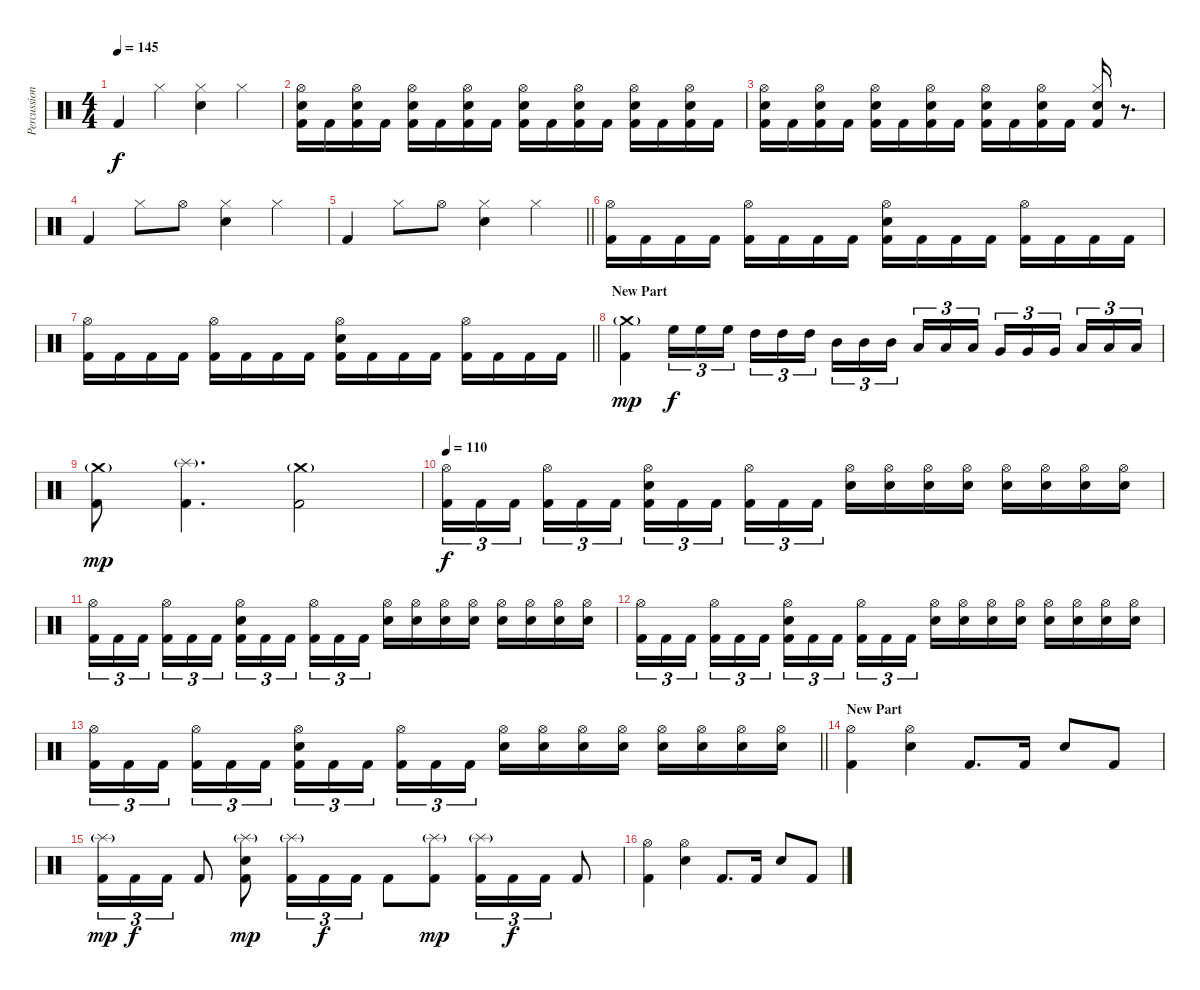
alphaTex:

\track ("Percussion" "Percussion") {instrument percussion}
\staff {score}
\articulation defaults
\ts (4 4)
\tempo 145
\clef neutral
\ks c "Kick (hit) 2".4{dy f} "Hi-Hat (closed)".4
("Hi-Hat (closed)" "Electric Snare (hit)").4 "Hi-Hat (closed)".4 |
("Hi-Hat (open)" "Electric Snare (hit)" "Kick (hit) 2").16 "Kick (hit) 2".16 ("Hi-Hat (open)" "Electric Snare (hit)" "Kick (hit) 2").16 "Kick (hit) 2".16 ("Hi-Hat (open)" "Electric Snare (hit)" "Kick (hit) 2").16 "Kick (hit) 2".16 ("Hi-Hat (open)" "Electric Snare (hit)" "Kick (hit) 2").16 "Kick (hit) 2".16 ("Hi-Hat (open)" "Electric Snare (hit)" "Kick (hit) 2").16 "Kick (hit) 2".16 ("Hi-Hat (open)" "Electric Snare (hit)" "Kick (hit) 2").16 "Kick (hit) 2".16 ("Hi-Hat (open)" "Electric Snare (hit)" "Kick (hit) 2").16 "Kick (hit) 2".16 ("Hi-Hat (open)" "Electric Snare (hit)" "Kick (hit) 2").16 "Kick (hit) 2".16 |
("Hi-Hat (open)" "Electric Snare (hit)" "Kick (hit) 2").16 "Kick (hit) 2".16 ("Hi-Hat (open)" "Electric Snare (hit)" "Kick (hit) 2").16 "Kick (hit) 2".16 ("Hi-Hat (open)" "Electric Snare (hit)" "Kick (hit) 2").16 "Kick (hit) 2".16 ("Hi-Hat (open)" "Electric Snare (hit)" "Kick (hit) 2").16 "Kick (hit) 2".16 ("Hi-Hat (open)" "Electric Snare (hit)" "Kick (hit) 2").16 "Kick (hit) 2".16 ("Hi-Hat (open)" "Electric Snare (hit)" "Kick (hit) 2").16 "Kick (hit) 2".16 ("Hi-Hat (closed)" "Electric Snare (hit)" "Kick (hit) 2").16 r.8{d} |
"Kick (hit) 2".4 "Hi-Hat (closed)".8 "Hi-Hat (open)".8 ("Hi-Hat (closed)" "Electric Snare (hit)").4 "Hi-Hat (closed)".4 |
\barLineRight lightlight "Kick (hit) 2".4 "Hi-Hat (closed)".8 "Hi-Hat (open)".8
("Hi-Hat (closed)" "Electric Snare (hit)").4 "Hi-Hat (closed)".4 |
("Hi-Hat (open)" "Kick (hit) 2").16 "Kick (hit) 2".16 "Kick (hit) 2".16 "Kick (hit) 2".16 ("Hi-Hat (open)" "Kick (hit) 2").16 "Kick (hit) 2".16 "Kick (hit) 2".16 "Kick (hit) 2".16 ("Hi-Hat (open)" "Electric Snare (hit)" "Kick (hit) 2").16 "Kick (hit) 2".16 "Kick (hit) 2".16 "Kick (hit) 2".16 ("Hi-Hat (open)" "Kick (hit) 2").16 "Kick (hit) 2".16 "Kick (hit) 2".16 "Kick (hit) 2".16 |
\barLineRight lightlight
("Hi-Hat (open)" "Kick (hit) 2").16 "Kick (hit) 2".16 "Kick (hit) 2".16 "Kick (hit) 2".16 ("Hi-Hat (open)" "Kick (hit) 2").16 "Kick (hit) 2".16 "Kick (hit) 2".16 "Kick (hit) 2".16 ("Hi-Hat (open)" "Electric Snare (hit)" "Kick (hit) 2").16 "Kick (hit) 2".16 "Kick (hit) 2".16 "Kick (hit) 2".16 ("Hi-Hat (open)" "Kick (hit) 2").16 "Kick (hit) 2".16 "Kick (hit) 2".16 "Kick (hit) 2".16 |
\section ("" "New Part")
("Crash medium (hit)"{g} "Kick (hit) 2").4{dy mp} "High Floor Tom (hit)".16{tu (3 2) dy f} "High Floor Tom (hit)".16{tu (3 2)} "High Floor Tom (hit)".16{tu (3 2) beam splitsecondary} "High Tom (hit)".16{tu (3 2)} "High Tom (hit)".16{tu (3 2)} "High Tom (hit)".16{tu (3 2)} "Mid Tom (hit)".16{tu (3 2)} "Mid Tom (hit)".16{tu (3 2)} "Mid Tom (hit)".16{tu (3 2) beam splitsecondary} "Low Tom (hit)".16{tu (3 2)} "Low Tom (hit)".16{tu (3 2)} "Low Tom (hit)".16{tu (3 2)} "Very Low Tom (hit)".16{tu (3 2)} "Very Low Tom (hit)".16{tu (3 2)} "Very Low Tom (hit)".16{tu (3 2) beam splitsecondary} "Low Floor Tom (hit)".16{tu (3 2)} "Low Floor Tom (hit)".16{tu (3 2)} "Low Floor Tom (hit)".16{tu (3 2)} |
("Crash medium (hit)"{g} "Kick (hit) 2").8{dy mp} ("Splash (hit)"{g} "Kick (hit) 2").4{d} ("Crash medium (hit)"{g} "Kick (hit) 2").2 |
\tempo 110
("Hi-Hat (open)" "Kick (hit) 2").16{tu (3 2) dy f} "Kick (hit) 2".16{tu (3 2)} "Kick (hit) 2".16{tu (3 2) beam splitsecondary} ("Hi-Hat (open)" "Kick (hit) 2").16{tu (3 2)} "Kick (hit) 2".16{tu (3 2)} "Kick (hit) 2".16{tu (3 2)} ("Hi-Hat (open)" "Electric Snare (hit)" "Kick (hit) 2").16{tu (3 2)} "Kick (hit) 2".16{tu (3 2)} "Kick (hit) 2".16{tu (3 2) beam splitsecondary} ("Hi-Hat (open)" "Kick (hit) 2").16{tu (3 2)} "Kick (hit) 2".16{tu (3 2)} "Kick (hit) 2".16{tu (3 2)} ("Hi-Hat (open)" "Electric Snare (hit)").16 ("Hi-Hat (open)" "Electric Snare (hit)").16 ("Hi-Hat (open)" "Electric Snare (hit)").16 ("Hi-Hat (open)" "Electric Snare (hit)").16 ("Hi-Hat (open)" "Electric Snare (hit)").16 ("Hi-Hat (open)" "Electric Snare (hit)").16 ("Hi-Hat (open)" "Electric Snare (hit)").16 ("Hi-Hat (open)" "Electric Snare (hit)").16 |
("Hi-Hat (open)" "Kick (hit) 2").16{tu (3 2)} "Kick (hit) 2".16{tu (3 2)} "Kick (hit) 2".16{tu (3 2) beam splitsecondary} ("Hi-Hat (open)" "Kick (hit) 2").16{tu (3 2)} "Kick (hit) 2".16{tu (3 2)} "Kick (hit) 2".16{tu (3 2)} ("Hi-Hat (open)" "Electric Snare (hit)" "Kick (hit) 2").16{tu (3 2)} "Kick (hit) 2".16{tu (3 2)} "Kick (hit) 2".16{tu (3 2) beam splitsecondary} ("Hi-Hat (open)" "Kick (hit) 2").16{tu (3 2)} "Kick (hit) 2".16{tu (3 2)} "Kick (hit) 2".16{tu (3 2)} ("Hi-Hat (open)" "Electric Snare (hit)").16 ("Hi-Hat (open)" "Electric Snare (hit)").16 ("Hi-Hat (open)" "Electric Snare (hit)").16 ("Hi-Hat (open)" "Electric Snare (hit)").16 ("Hi-Hat (open)" "Electric Snare (hit)").16 ("Hi-Hat (open)" "Electric Snare (hit)").16 ("Hi-Hat (open)" "Electric Snare (hit)").16 ("Hi-Hat (open)" "Electric Snare (hit)").16 |
("Hi-Hat (open)" "Kick (hit) 2").16{tu (3 2)} "Kick (hit) 2".16{tu (3 2)} "Kick (hit) 2".16{tu (3 2) beam splitsecondary} ("Hi-Hat (open)" "Kick (hit) 2").16{tu (3 2)} "Kick (hit) 2".16{tu (3 2)} "Kick (hit) 2".16{tu (3 2)} ("Hi-Hat (open)" "Electric Snare (hit)" "Kick (hit) 2").16{tu (3 2)} "Kick (hit) 2".16{tu (3 2)} "Kick (hit) 2".16{tu (3 2) beam splitsecondary} ("Hi-Hat (open)" "Kick (hit) 2").16{tu (3 2)} "Kick (hit) 2".16{tu (3 2)} "Kick (hit) 2".16{tu (3 2)} ("Hi-Hat (open)" "Electric Snare (hit)").16 ("Hi-Hat (open)" "Electric Snare (hit)").16 ("Hi-Hat (open)" "Electric Snare (hit)").16 ("Hi-Hat (open)" "Electric Snare (hit)").16 ("Hi-Hat (open)" "Electric Snare (hit)").16 ("Hi-Hat (open)" "Electric Snare (hit)").16 ("Hi-Hat (open)" "Electric Snare (hit)").16 ("Hi-Hat (open)" "Electric Snare (hit)").16 |
\barLineRight lightlight
("Hi-Hat (open)" "Kick (hit) 2").16{tu (3 2)} "Kick (hit) 2".16{tu (3 2)} "Kick (hit) 2".16{tu (3 2) beam splitsecondary} ("Hi-Hat (open)" "Kick (hit) 2").16{tu (3 2)} "Kick (hit) 2".16{tu (3 2)} "Kick (hit) 2".16{tu (3 2)} ("Hi-Hat (open)" "Electric Snare (hit)" "Kick (hit) 2").16{tu (3 2)} "Kick (hit) 2".16{tu (3 2)} "Kick (hit) 2".16{tu (3 2) beam splitsecondary} ("Hi-Hat (open)" "Kick (hit) 2").16{tu (3 2)} "Kick (hit) 2".16{tu (3 2)} "Kick (hit) 2".16{tu (3 2)} ("Hi-Hat (open)" "Electric Snare (hit)").16 ("Hi-Hat (open)" "Electric Snare (hit)").16 ("Hi-Hat (open)" "Electric Snare (hit)").16 ("Hi-Hat (open)" "Electric Snare (hit)").16 ("Hi-Hat (open)" "Electric Snare (hit)").16 ("Hi-Hat (open)" "Electric Snare (hit)").16 ("Hi-Hat (open)" "Electric Snare (hit)").16 ("Hi-Hat (open)" "Electric Snare (hit)").16 |
\section ("" "New Part")
("Hi-Hat (open)" "Kick (hit) 2").4 ("Hi-Hat (open)" "Electric Snare (hit)").4 "Kick (hit) 2".8{d} "Kick (hit) 2".16 "Electric Snare (hit)".8 "Kick (hit) 2".8 |
("Splash (hit)"{g} "Kick (hit) 2").16{tu (3 2) dy mp} "Kick (hit) 2".16{tu (3 2) dy f} "Kick (hit) 2".16{tu (3 2)} "Kick (hit) 2".8 ("Splash (hit)"{g} "Electric Snare (hit)" "Kick (hit) 2").8{dy mp} ("Splash (hit)"{g} "Kick (hit) 2").16{tu (3 2)} "Kick (hit) 2".16{tu (3 2) dy f} "Kick (hit) 2".16{tu (3 2)} "Kick (hit) 2".8 ("Splash (hit)"{g} "Kick (hit) 2").8{dy mp} ("Splash (hit)"{g} "Kick (hit) 2").16{tu (3 2)} "Kick (hit) 2".16{tu (3 2) dy f} "Kick (hit) 2".16{tu (3 2)} "Kick (hit) 2".8 |
("Hi-Hat (open)" "Kick (hit) 2").4 ("Hi-Hat (open)" "Electric Snare (hit)").4 "Kick (hit) 2".8{d} "Kick (hit) 2".16 "Electric Snare (hit)".8 "Kick (hit) 2".8
